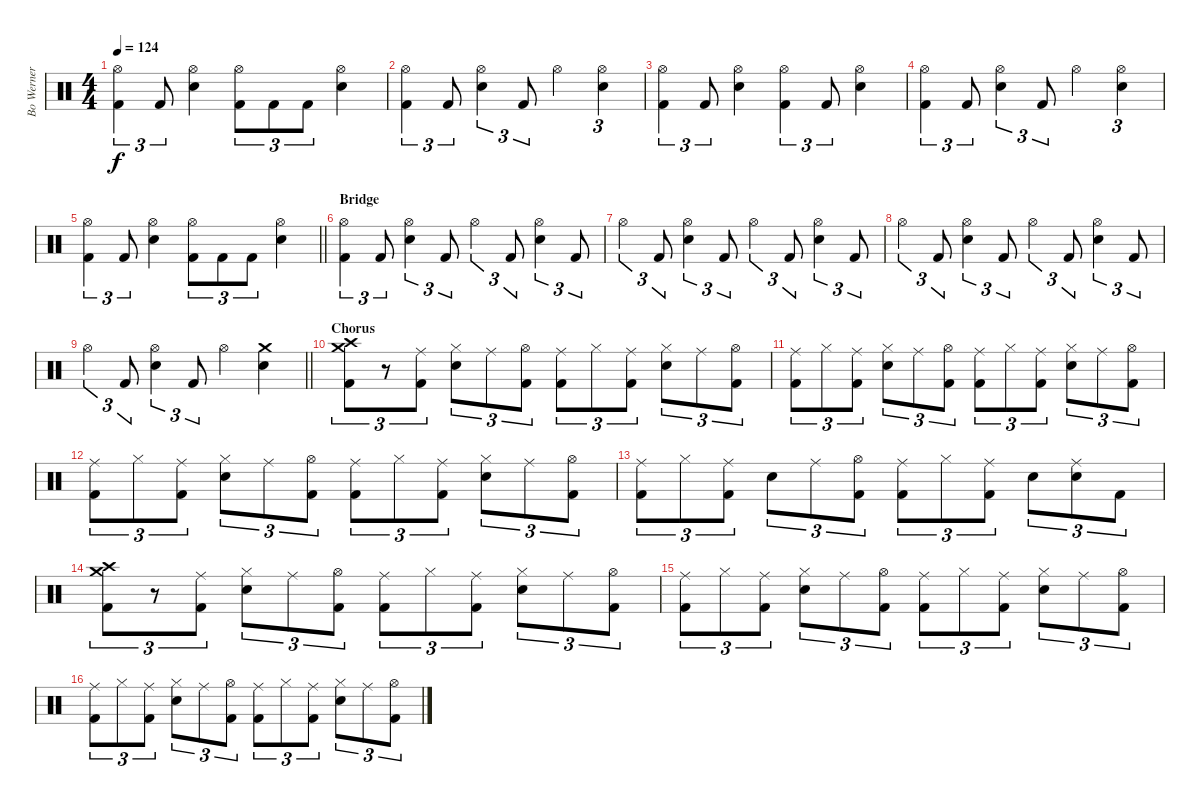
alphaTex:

\track ("Bo Werner " "Bo Werner ") {instrument percussion}
\staff {score}
\articulation defaults
\ts (4 4)
\tempo 124
\clef neutral
\ks c
("Hi-Hat (open)" "Kick (hit) 2").4{tu (3 2) dy f} "Kick (hit) 2".8{tu (3 2)} ("Hi-Hat (open)" "Snare (hit) 2").4 ("Hi-Hat (open)" "Kick (hit) 2").8{tu (3 2)} "Kick (hit) 2".8{tu (3 2)} "Kick (hit) 2".8{tu (3 2)} ("Hi-Hat (open)" "Snare (hit) 2").4 |
("Hi-Hat (open)" "Kick (hit) 2").4{tu (3 2)} "Kick (hit) 2".8{tu (3 2)} ("Hi-Hat (open)" "Snare (hit) 2").4{tu (3 2)} "Kick (hit) 2".8{tu (3 2)} "Hi-Hat (open)".4 ("Hi-Hat (open)" "Snare (hit) 2").4{tu (3 2)} |
("Hi-Hat (open)" "Kick (hit) 2").4{tu (3 2)} "Kick (hit) 2".8{tu (3 2)} ("Hi-Hat (open)" "Snare (hit) 2").4 ("Hi-Hat (open)" "Kick (hit) 2").4{tu (3 2)} "Kick (hit) 2".8{tu (3 2)} ("Hi-Hat (open)" "Snare (hit) 2").4 |
("Hi-Hat (open)" "Kick (hit) 2").4{tu (3 2)} "Kick (hit) 2".8{tu (3 2)} ("Hi-Hat (open)" "Snare (hit) 2").4{tu (3 2)} "Kick (hit) 2".8{tu (3 2)} "Hi-Hat (open)".4 ("Hi-Hat (open)" "Snare (hit) 2").4{tu (3 2)} |
\barLineRight lightlight
("Hi-Hat (open)" "Kick (hit) 2").4{tu (3 2)} "Kick (hit) 2".8{tu (3 2)} ("Hi-Hat (open)" "Snare (hit) 2").4 ("Hi-Hat (open)" "Kick (hit) 2").8{tu (3 2)} "Kick (hit) 2".8{tu (3 2)} "Kick (hit) 2".8{tu (3 2)} ("Hi-Hat (open)" "Snare (hit) 2").4 |
\section ("" "Bridge")
("Hi-Hat (open)" "Kick (hit) 2").4{tu (3 2)} "Kick (hit) 2".8{tu (3 2)} ("Hi-Hat (open)" "Snare (hit) 2").4{tu (3 2)} "Kick (hit) 2".8{tu (3 2)} "Hi-Hat (open)".4{tu (3 2)} "Kick (hit) 2".8{tu (3 2)} ("Hi-Hat (open)" "Snare (hit) 2").4{tu (3 2)} "Kick (hit) 2".8{tu (3 2)} |
"Hi-Hat (open)".4{tu (3 2)} "Kick (hit) 2".8{tu (3 2)} ("Hi-Hat (open)" "Snare (hit) 2").4{tu (3 2)} "Kick (hit) 2".8{tu (3 2)} "Hi-Hat (open)".4{tu (3 2)} "Kick (hit) 2".8{tu (3 2)} ("Hi-Hat (open)" "Snare (hit) 2").4{tu (3 2)} "Kick (hit) 2".8{tu (3 2)} |
"Hi-Hat (open)".4{tu (3 2)} "Kick (hit) 2".8{tu (3 2)} ("Hi-Hat (open)" "Snare (hit) 2").4{tu (3 2)} "Kick (hit) 2".8{tu (3 2)} "Hi-Hat (open)".4{tu (3 2)} "Kick (hit) 2".8{tu (3 2)} ("Hi-Hat (open)" "Snare (hit) 2").4{tu (3 2)} "Kick (hit) 2".8{tu (3 2)} |
\barLineRight lightlight "Hi-Hat (open)".4{tu (3 2)} "Kick (hit) 2".8{tu (3 2)}
("Hi-Hat (open)" "Snare (hit) 2").4{tu (3 2)} "Kick (hit) 2".8{tu (3 2)} "Hi-Hat (open)".4 ("Crash medium (hit)" "Snare (hit) 2").4 |
\section ("" "Chorus")
("Crash medium (hit)" "Crash high (hit)" "Kick (hit) 2").8{tu (3 2)} r.8{tu (3 2)} ("Ride (middle)" "Kick (hit) 2").8{tu (3 2)} ("Hi-Hat (closed)" "Electric Snare (hit)").8{tu (3 2)} "Ride (middle)".8{tu (3 2)} ("Hi-Hat (open)" "Kick (hit) 2").8{tu (3 2)} ("Ride (middle)" "Kick (hit) 2").8{tu (3 2)} "Hi-Hat (closed)".8{tu (3 2)} ("Ride (middle)" "Kick (hit) 2").8{tu (3 2)} ("Hi-Hat (closed)" "Electric Snare (hit)").8{tu (3 2)} "Ride (middle)".8{tu (3 2)} ("Hi-Hat (open)" "Kick (hit) 2").8{tu (3 2)} |
("Ride (middle)" "Kick (hit) 2").8{tu (3 2)} "Hi-Hat (closed)".8{tu (3 2)} ("Ride (middle)" "Kick (hit) 2").8{tu (3 2)} ("Hi-Hat (closed)" "Electric Snare (hit)").8{tu (3 2)} "Ride (middle)".8{tu (3 2)} ("Hi-Hat (open)" "Kick (hit) 2").8{tu (3 2)} ("Ride (middle)" "Kick (hit) 2").8{tu (3 2)} "Hi-Hat (closed)".8{tu (3 2)} ("Ride (middle)" "Kick (hit) 2").8{tu (3 2)} ("Hi-Hat (closed)" "Electric Snare (hit)").8{tu (3 2)} "Ride (middle)".8{tu (3 2)} ("Hi-Hat (open)" "Kick (hit) 2").8{tu (3 2)} |
("Ride (middle)" "Kick (hit) 2").8{tu (3 2)} "Hi-Hat (closed)".8{tu (3 2)} ("Ride (middle)" "Kick (hit) 2").8{tu (3 2)} ("Hi-Hat (closed)" "Electric Snare (hit)").8{tu (3 2)} "Ride (middle)".8{tu (3 2)} ("Hi-Hat (open)" "Kick (hit) 2").8{tu (3 2)} ("Ride (middle)" "Kick (hit) 2").8{tu (3 2)} "Hi-Hat (closed)".8{tu (3 2)} ("Ride (middle)" "Kick (hit) 2").8{tu (3 2)} ("Hi-Hat (closed)" "Electric Snare (hit)").8{tu (3 2)} "Ride (middle)".8{tu (3 2)} ("Hi-Hat (open)" "Kick (hit) 2").8{tu (3 2)} |
("Ride (middle)" "Kick (hit) 2").8{tu (3 2)} "Hi-Hat (closed)".8{tu (3 2)} ("Ride (middle)" "Kick (hit) 2").8{tu (3 2)} "Electric Snare (hit)".8{tu (3 2)} "Ride (middle)".8{tu (3 2)} ("Hi-Hat (open)" "Kick (hit) 2").8{tu (3 2)} ("Ride (middle)" "Kick (hit) 2").8{tu (3 2)} "Hi-Hat (closed)".8{tu (3 2)} ("Ride (middle)" "Kick (hit) 2").8{tu (3 2)} "Electric Snare (hit)".8{tu (3 2)} ("Ride (middle)" "Electric Snare (hit)").8{tu (3 2)} "Kick (hit) 2".8{tu (3 2)} |
("Crash medium (hit)" "Crash high (hit)" "Kick (hit) 2").8{tu (3 2)} r.8{tu (3 2)} ("Ride (middle)" "Kick (hit) 2").8{tu (3 2)} ("Hi-Hat (closed)" "Electric Snare (hit)").8{tu (3 2)} "Ride (middle)".8{tu (3 2)} ("Hi-Hat (open)" "Kick (hit) 2").8{tu (3 2)} ("Ride (middle)" "Kick (hit) 2").8{tu (3 2)} "Hi-Hat (closed)".8{tu (3 2)} ("Ride (middle)" "Kick (hit) 2").8{tu (3 2)} ("Hi-Hat (closed)" "Electric Snare (hit)").8{tu (3 2)} "Ride (middle)".8{tu (3 2)} ("Hi-Hat (open)" "Kick (hit) 2").8{tu (3 2)} |
("Ride (middle)" "Kick (hit) 2").8{tu (3 2)} "Hi-Hat (closed)".8{tu (3 2)} ("Ride (middle)" "Kick (hit) 2").8{tu (3 2)} ("Hi-Hat (closed)" "Electric Snare (hit)").8{tu (3 2)} "Ride (middle)".8{tu (3 2)} ("Hi-Hat (open)" "Kick (hit) 2").8{tu (3 2)} ("Ride (middle)" "Kick (hit) 2").8{tu (3 2)} "Hi-Hat (closed)".8{tu (3 2)} ("Ride (middle)" "Kick (hit) 2").8{tu (3 2)} ("Hi-Hat (closed)" "Electric Snare (hit)").8{tu (3 2)} "Ride (middle)".8{tu (3 2)} ("Hi-Hat (open)" "Kick (hit) 2").8{tu (3 2)} |
("Ride (middle)" "Kick (hit) 2").8{tu (3 2)} "Hi-Hat (closed)".8{tu (3 2)} ("Ride (middle)" "Kick (hit) 2").8{tu (3 2)} ("Hi-Hat (closed)" "Electric Snare (hit)").8{tu (3 2)} "Ride (middle)".8{tu (3 2)} ("Hi-Hat (open)" "Kick (hit) 2").8{tu (3 2)} ("Ride (middle)" "Kick (hit) 2").8{tu (3 2)} "Hi-Hat (closed)".8{tu (3 2)} ("Ride (middle)" "Kick (hit) 2").8{tu (3 2)} ("Hi-Hat (closed)" "Electric Snare (hit)").8{tu (3 2)} "Ride (middle)".8{tu (3 2)} ("Hi-Hat (open)" "Kick (hit) 2").8{tu (3 2)}
